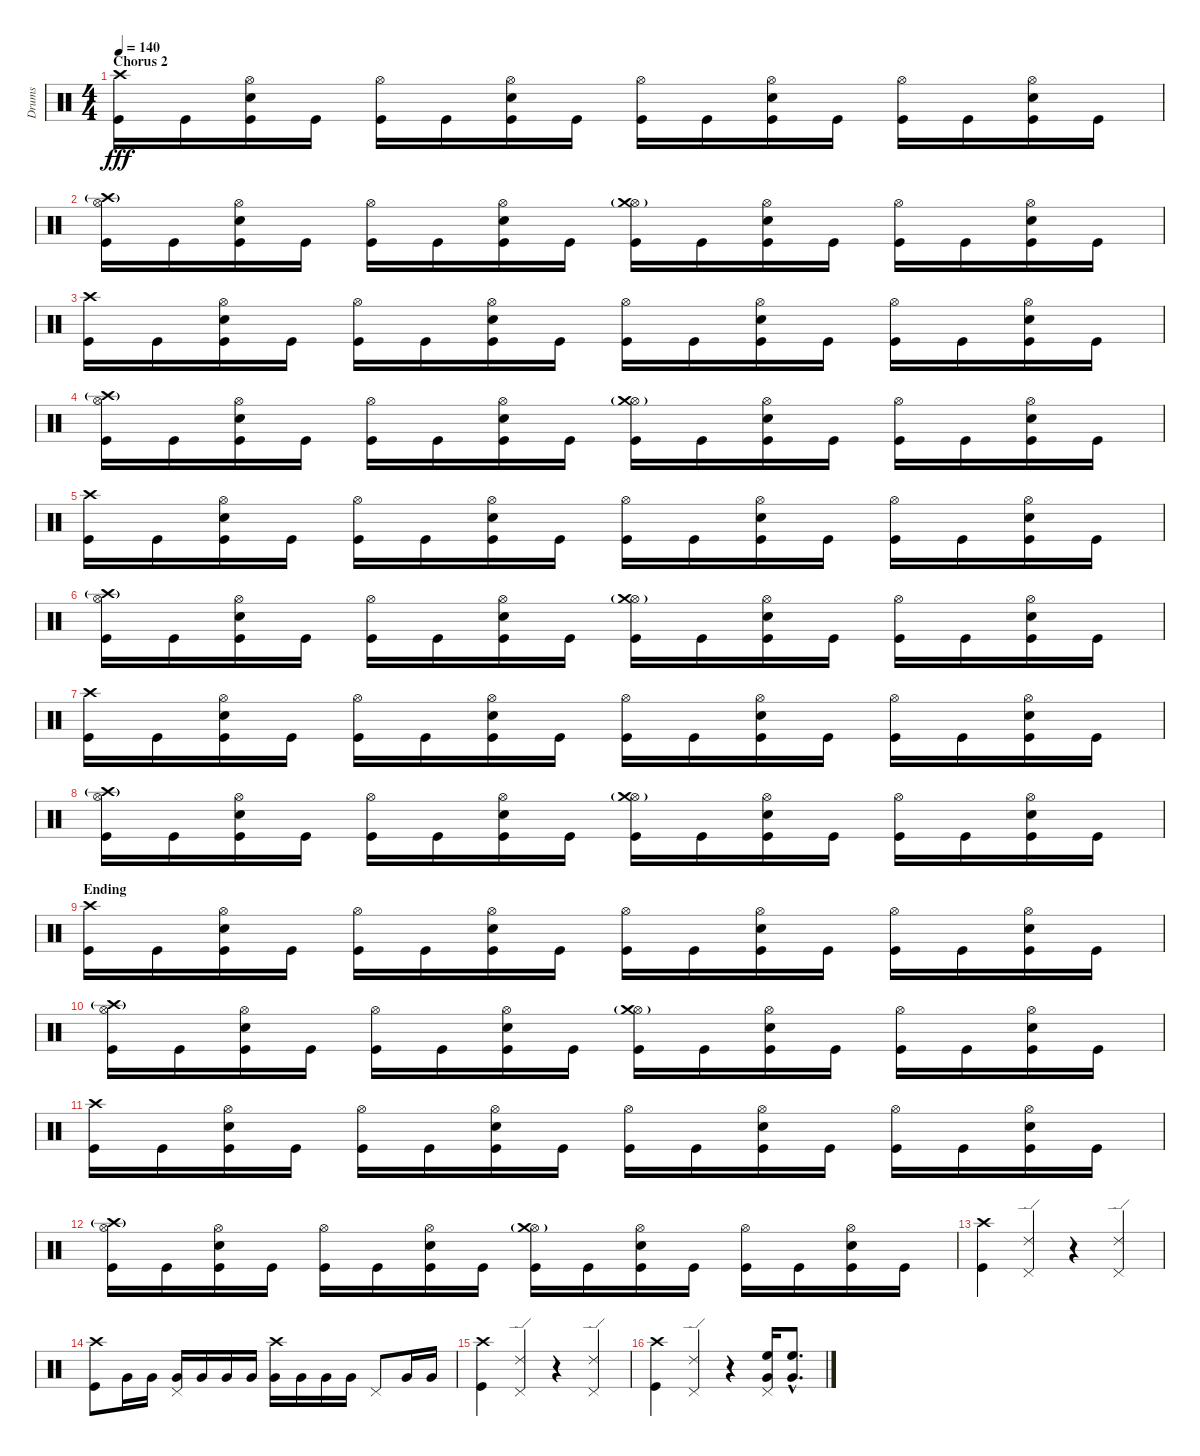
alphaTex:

\track ("Drums" "Drums") {instrument percussion}
\staff {score}
\articulation defaults
\ts (4 4)
\section ("" "Chorus 2")
\tempo 140
\clef neutral
\ks c
("Crash high (hit)" "Kick (hit)").16{dy fff} "Kick (hit)".16 ("Hi-Hat (open)" "Snare (hit) 2" "Kick (hit)").16 "Kick (hit)".16 ("Hi-Hat (open)" "Kick (hit)").16 "Kick (hit)".16 ("Hi-Hat (open)" "Snare (hit) 2" "Kick (hit)").16 "Kick (hit)".16 ("Hi-Hat (open)" "Kick (hit)").16 "Kick (hit)".16 ("Hi-Hat (open)" "Snare (hit) 2" "Kick (hit)").16 "Kick (hit)".16 ("Hi-Hat (open)" "Kick (hit)").16 "Kick (hit)".16 ("Hi-Hat (open)" "Snare (hit) 2" "Kick (hit)").16 "Kick (hit)".16 |
("Hi-Hat (open)" "Crash high (hit)"{g} "Kick (hit)").16 "Kick (hit)".16 ("Hi-Hat (open)" "Snare (hit) 2" "Kick (hit)").16 "Kick (hit)".16 ("Hi-Hat (open)" "Kick (hit)").16 "Kick (hit)".16 ("Hi-Hat (open)" "Snare (hit) 2" "Kick (hit)").16 "Kick (hit)".16 ("Hi-Hat (open)" "Crash medium (hit)"{g} "Kick (hit)").16 "Kick (hit)".16 ("Hi-Hat (open)" "Snare (hit) 2" "Kick (hit)").16 "Kick (hit)".16 ("Hi-Hat (open)" "Kick (hit)").16 "Kick (hit)".16 ("Hi-Hat (open)" "Snare (hit) 2" "Kick (hit)").16 "Kick (hit)".16 |
("Crash high (hit)" "Kick (hit)").16 "Kick (hit)".16 ("Hi-Hat (open)" "Snare (hit) 2" "Kick (hit)").16 "Kick (hit)".16 ("Hi-Hat (open)" "Kick (hit)").16 "Kick (hit)".16 ("Hi-Hat (open)" "Snare (hit) 2" "Kick (hit)").16 "Kick (hit)".16 ("Hi-Hat (open)" "Kick (hit)").16 "Kick (hit)".16 ("Hi-Hat (open)" "Snare (hit) 2" "Kick (hit)").16 "Kick (hit)".16 ("Hi-Hat (open)" "Kick (hit)").16 "Kick (hit)".16 ("Hi-Hat (open)" "Snare (hit) 2" "Kick (hit)").16 "Kick (hit)".16 |
("Hi-Hat (open)" "Crash high (hit)"{g} "Kick (hit)").16 "Kick (hit)".16 ("Hi-Hat (open)" "Snare (hit) 2" "Kick (hit)").16 "Kick (hit)".16 ("Hi-Hat (open)" "Kick (hit)").16 "Kick (hit)".16 ("Hi-Hat (open)" "Snare (hit) 2" "Kick (hit)").16 "Kick (hit)".16 ("Hi-Hat (open)" "Crash medium (hit)"{g} "Kick (hit)").16 "Kick (hit)".16 ("Hi-Hat (open)" "Snare (hit) 2" "Kick (hit)").16 "Kick (hit)".16 ("Hi-Hat (open)" "Kick (hit)").16 "Kick (hit)".16 ("Hi-Hat (open)" "Snare (hit) 2" "Kick (hit)").16 "Kick (hit)".16 |
("Crash high (hit)" "Kick (hit)").16 "Kick (hit)".16 ("Hi-Hat (open)" "Snare (hit) 2" "Kick (hit)").16 "Kick (hit)".16 ("Hi-Hat (open)" "Kick (hit)").16 "Kick (hit)".16 ("Hi-Hat (open)" "Snare (hit) 2" "Kick (hit)").16 "Kick (hit)".16 ("Hi-Hat (open)" "Kick (hit)").16 "Kick (hit)".16 ("Hi-Hat (open)" "Snare (hit) 2" "Kick (hit)").16 "Kick (hit)".16 ("Hi-Hat (open)" "Kick (hit)").16 "Kick (hit)".16 ("Hi-Hat (open)" "Snare (hit) 2" "Kick (hit)").16 "Kick (hit)".16 |
("Hi-Hat (open)" "Crash high (hit)"{g} "Kick (hit)").16 "Kick (hit)".16 ("Hi-Hat (open)" "Snare (hit) 2" "Kick (hit)").16 "Kick (hit)".16 ("Hi-Hat (open)" "Kick (hit)").16 "Kick (hit)".16 ("Hi-Hat (open)" "Snare (hit) 2" "Kick (hit)").16 "Kick (hit)".16 ("Hi-Hat (open)" "Crash medium (hit)"{g} "Kick (hit)").16 "Kick (hit)".16 ("Hi-Hat (open)" "Snare (hit) 2" "Kick (hit)").16 "Kick (hit)".16 ("Hi-Hat (open)" "Kick (hit)").16 "Kick (hit)".16 ("Hi-Hat (open)" "Snare (hit) 2" "Kick (hit)").16 "Kick (hit)".16 |
("Crash high (hit)" "Kick (hit)").16 "Kick (hit)".16 ("Hi-Hat (open)" "Snare (hit) 2" "Kick (hit)").16 "Kick (hit)".16 ("Hi-Hat (open)" "Kick (hit)").16 "Kick (hit)".16 ("Hi-Hat (open)" "Snare (hit) 2" "Kick (hit)").16 "Kick (hit)".16 ("Hi-Hat (open)" "Kick (hit)").16 "Kick (hit)".16 ("Hi-Hat (open)" "Snare (hit) 2" "Kick (hit)").16 "Kick (hit)".16 ("Hi-Hat (open)" "Kick (hit)").16 "Kick (hit)".16 ("Hi-Hat (open)" "Snare (hit) 2" "Kick (hit)").16 "Kick (hit)".16 |
("Hi-Hat (open)" "Crash high (hit)"{g} "Kick (hit)").16 "Kick (hit)".16 ("Hi-Hat (open)" "Snare (hit) 2" "Kick (hit)").16 "Kick (hit)".16 ("Hi-Hat (open)" "Kick (hit)").16 "Kick (hit)".16 ("Hi-Hat (open)" "Snare (hit) 2" "Kick (hit)").16 "Kick (hit)".16 ("Hi-Hat (open)" "Crash medium (hit)"{g} "Kick (hit)").16 "Kick (hit)".16 ("Hi-Hat (open)" "Snare (hit) 2" "Kick (hit)").16 "Kick (hit)".16 ("Hi-Hat (open)" "Kick (hit)").16 "Kick (hit)".16 ("Hi-Hat (open)" "Snare (hit) 2" "Kick (hit)").16 "Kick (hit)".16 |
\section ("" "Ending")
("Crash high (hit)" "Kick (hit)").16 "Kick (hit)".16 ("Hi-Hat (open)" "Snare (hit) 2" "Kick (hit)").16 "Kick (hit)".16 ("Hi-Hat (open)" "Kick (hit)").16 "Kick (hit)".16 ("Hi-Hat (open)" "Snare (hit) 2" "Kick (hit)").16 "Kick (hit)".16 ("Hi-Hat (open)" "Kick (hit)").16 "Kick (hit)".16 ("Hi-Hat (open)" "Snare (hit) 2" "Kick (hit)").16 "Kick (hit)".16 ("Hi-Hat (open)" "Kick (hit)").16 "Kick (hit)".16 ("Hi-Hat (open)" "Snare (hit) 2" "Kick (hit)").16 "Kick (hit)".16 |
("Hi-Hat (open)" "Crash high (hit)"{g} "Kick (hit)").16 "Kick (hit)".16 ("Hi-Hat (open)" "Snare (hit) 2" "Kick (hit)").16 "Kick (hit)".16 ("Hi-Hat (open)" "Kick (hit)").16 "Kick (hit)".16 ("Hi-Hat (open)" "Snare (hit) 2" "Kick (hit)").16 "Kick (hit)".16 ("Hi-Hat (open)" "Crash medium (hit)"{g} "Kick (hit)").16 "Kick (hit)".16 ("Hi-Hat (open)" "Snare (hit) 2" "Kick (hit)").16 "Kick (hit)".16 ("Hi-Hat (open)" "Kick (hit)").16 "Kick (hit)".16 ("Hi-Hat (open)" "Snare (hit) 2" "Kick (hit)").16 "Kick (hit)".16 |
("Crash high (hit)" "Kick (hit)").16 "Kick (hit)".16 ("Hi-Hat (open)" "Snare (hit) 2" "Kick (hit)").16 "Kick (hit)".16 ("Hi-Hat (open)" "Kick (hit)").16 "Kick (hit)".16 ("Hi-Hat (open)" "Snare (hit) 2" "Kick (hit)").16 "Kick (hit)".16 ("Hi-Hat (open)" "Kick (hit)").16 "Kick (hit)".16 ("Hi-Hat (open)" "Snare (hit) 2" "Kick (hit)").16 "Kick (hit)".16 ("Hi-Hat (open)" "Kick (hit)").16 "Kick (hit)".16 ("Hi-Hat (open)" "Snare (hit) 2" "Kick (hit)").16 "Kick (hit)".16 |
("Hi-Hat (open)" "Crash high (hit)"{g} "Kick (hit)").16 "Kick (hit)".16 ("Hi-Hat (open)" "Snare (hit) 2" "Kick (hit)").16 "Kick (hit)".16 ("Hi-Hat (open)" "Kick (hit)").16 "Kick (hit)".16 ("Hi-Hat (open)" "Snare (hit) 2" "Kick (hit)").16 "Kick (hit)".16 ("Hi-Hat (open)" "Crash medium (hit)"{g} "Kick (hit)").16 "Kick (hit)".16 ("Hi-Hat (open)" "Snare (hit) 2" "Kick (hit)").16 "Kick (hit)".16 ("Hi-Hat (open)" "Kick (hit)").16 "Kick (hit)".16 ("Hi-Hat (open)" "Snare (hit) 2" "Kick (hit)").16 "Kick (hit)".16 |
("Crash high (hit)" "Kick (hit)").4 ("Pedal Hi-Hat (hit)" "Ride (edge) 2").4 r.4 ("Pedal Hi-Hat (hit)" "Ride (edge) 2").4 |
("Crash high (hit)" "Kick (hit)").8 "Very Low Tom (hit)".16 "Very Low Tom (hit)".16 ("Pedal Hi-Hat (hit)" "Very Low Tom (hit)").16 "Very Low Tom (hit)".16 "Very Low Tom (hit)".16 "Very Low Tom (hit)".16 ("Crash high (hit)" "Very Low Tom (hit)").16 "Very Low Tom (hit)".16 "Very Low Tom (hit)".16 "Very Low Tom (hit)".16 "Pedal Hi-Hat (hit)".8 "Very Low Tom (hit)".16 "Very Low Tom (hit)".16 |
("Crash high (hit)" "Kick (hit)").4 ("Pedal Hi-Hat (hit)" "Ride (edge) 2").4 r.4 ("Pedal Hi-Hat (hit)" "Ride (edge) 2").4 |
("Crash high (hit)" "Kick (hit)").4 ("Pedal Hi-Hat (hit)" "Ride (edge) 2").4 r.4 ("Pedal Hi-Hat (hit)" "High Floor Tom (hit)" "Very Low Tom (hit)").16 ("High Floor Tom (hit)"{hac} "Very Low Tom (hit)"{hac}).8{d}
